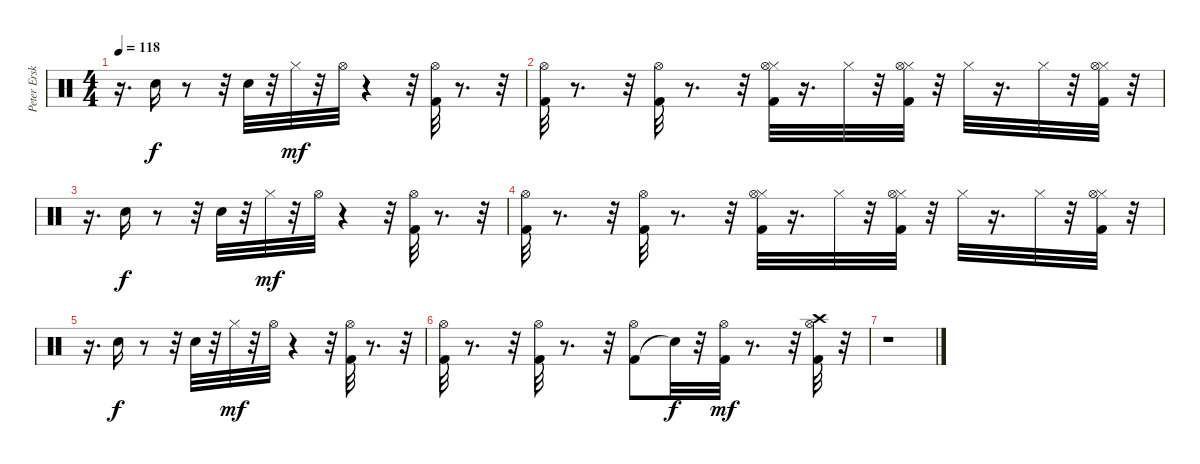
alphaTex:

\track ("Peter Erskine" "Peter Ersk") {instrument percussion}
\staff {score}
\articulation defaults
\ts (4 4)
\tempo 118
\clef neutral
\ks c
r.16{d dy mf} "Electric Snare (hit)".16{dy f} r.8 r.32 "Electric Snare (hit)".32 r.32 "Hi-Hat (closed)".32{dy mf} r.32 "Hi-Hat (open)".32 r.4 r.32 ("Kick (hit) 2" "Hi-Hat (open)").32 r.8{d} r.32 |
("Kick (hit) 2" "Hi-Hat (open)").32 r.8{d} r.32 ("Kick (hit) 2" "Hi-Hat (open)").32 r.8{d} r.32 ("Kick (hit) 2" "Hi-Hat (closed)" "Hi-Hat (open)").32 r.16{d} "Hi-Hat (closed)".32 r.32 ("Kick (hit) 2" "Hi-Hat (closed)" "Hi-Hat (open)").32 r.32 "Hi-Hat (closed)".32 r.16{d} "Hi-Hat (closed)".32 r.32 ("Kick (hit) 2" "Hi-Hat (closed)" "Hi-Hat (open)").32 r.32 |
r.16{d} "Electric Snare (hit)".16{dy f} r.8 r.32 "Electric Snare (hit)".32 r.32 "Hi-Hat (closed)".32{dy mf} r.32 "Hi-Hat (open)".32 r.4 r.32 ("Kick (hit) 2" "Hi-Hat (open)").32 r.8{d} r.32 |
("Kick (hit) 2" "Hi-Hat (open)").32 r.8{d} r.32 ("Kick (hit) 2" "Hi-Hat (open)").32 r.8{d} r.32 ("Kick (hit) 2" "Hi-Hat (closed)" "Hi-Hat (open)").32 r.16{d} "Hi-Hat (closed)".32 r.32 ("Kick (hit) 2" "Hi-Hat (closed)" "Hi-Hat (open)").32 r.32 "Hi-Hat (closed)".32 r.16{d} "Hi-Hat (closed)".32 r.32 ("Kick (hit) 2" "Hi-Hat (closed)" "Hi-Hat (open)").32 r.32 |
r.16{d} "Electric Snare (hit)".16{dy f} r.8 r.32 "Electric Snare (hit)".32 r.32 "Hi-Hat (closed)".32{dy mf} r.32 "Hi-Hat (open)".32 r.4 r.32 ("Kick (hit) 2" "Hi-Hat (open)").32 r.8{d} r.32 |
("Kick (hit) 2" "Hi-Hat (open)").32 r.8{d} r.32 ("Kick (hit) 2" "Hi-Hat (open)").32 r.8{d} r.32 ("Kick (hit) 2" "Hi-Hat (open)").8 "Snare (hit)"{t}.32{dy f} r.32 ("Kick (hit) 2" "Hi-Hat (open)").32{dy mf} r.8{d} r.32 ("Kick (hit) 2" "Crash high (hit)" "Hi-Hat (open)").32 r.32 |
r.1
